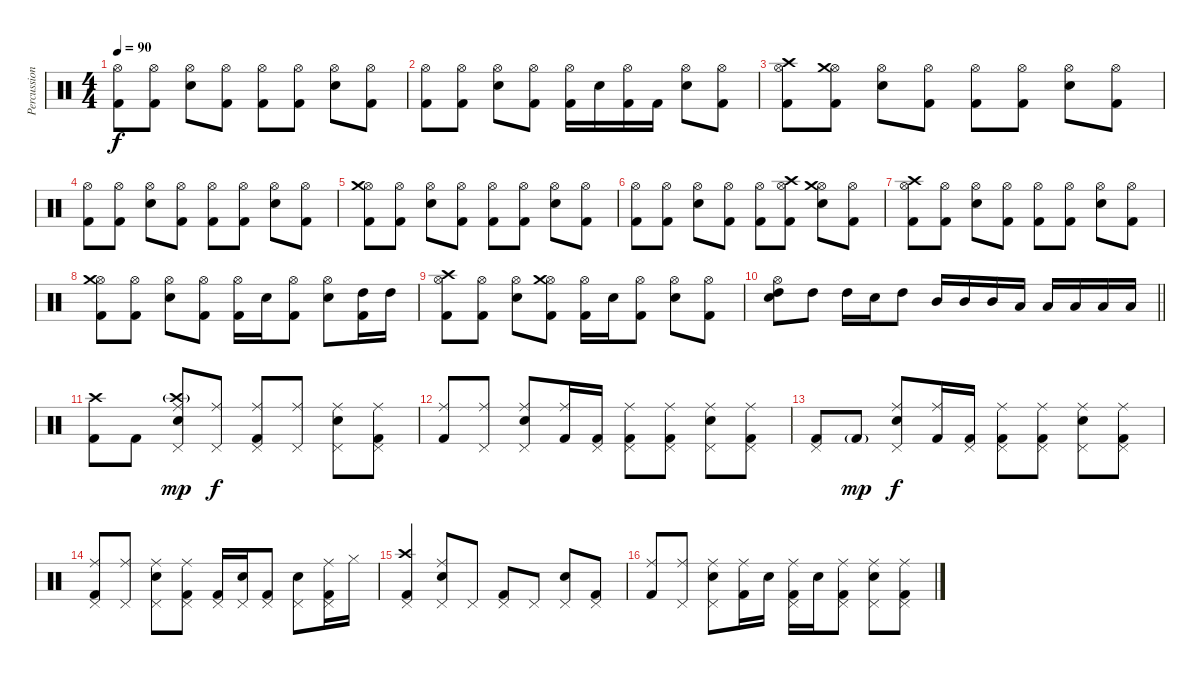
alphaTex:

\track ("Percussion" "Percussion") {instrument percussion}
\staff {score}
\articulation defaults
\ts (4 4)
\tempo 90
\clef neutral
\ks c
("Kick (hit) 2" "Hi-Hat (open)").8{dy f} ("Kick (hit) 2" "Hi-Hat (open)").8 ("Electric Snare (hit)" "Hi-Hat (open)").8 ("Kick (hit) 2" "Hi-Hat (open)").8 ("Kick (hit) 2" "Hi-Hat (open)").8 ("Kick (hit) 2" "Hi-Hat (open)").8 ("Electric Snare (hit)" "Hi-Hat (open)").8 ("Kick (hit) 2" "Hi-Hat (open)").8 |
("Kick (hit) 2" "Hi-Hat (open)").8 ("Kick (hit) 2" "Hi-Hat (open)").8 ("Electric Snare (hit)" "Hi-Hat (open)").8 ("Kick (hit) 2" "Hi-Hat (open)").8 ("Kick (hit) 2" "Hi-Hat (open)").16 "Snare (hit) 2".16 ("Kick (hit) 2" "Hi-Hat (open)").16 "Kick (hit) 2".16 ("Electric Snare (hit)" "Hi-Hat (open)").8 ("Kick (hit) 2" "Hi-Hat (open)").8 |
("Kick (hit) 2" "Hi-Hat (open)" "Crash high (hit)").8 ("Kick (hit) 2" "Hi-Hat (open)" "Crash medium (hit)").8 ("Electric Snare (hit)" "Hi-Hat (open)").8 ("Kick (hit) 2" "Hi-Hat (open)").8 ("Kick (hit) 2" "Hi-Hat (open)").8 ("Kick (hit) 2" "Hi-Hat (open)").8 ("Electric Snare (hit)" "Hi-Hat (open)").8 ("Kick (hit) 2" "Hi-Hat (open)").8 |
("Kick (hit) 2" "Hi-Hat (open)").8 ("Kick (hit) 2" "Hi-Hat (open)").8 ("Electric Snare (hit)" "Hi-Hat (open)").8 ("Kick (hit) 2" "Hi-Hat (open)").8 ("Kick (hit) 2" "Hi-Hat (open)").8 ("Kick (hit) 2" "Hi-Hat (open)").8 ("Electric Snare (hit)" "Hi-Hat (open)").8 ("Kick (hit) 2" "Hi-Hat (open)").8 |
("Kick (hit) 2" "Hi-Hat (open)" "Crash medium (hit)").8 ("Kick (hit) 2" "Hi-Hat (open)").8 ("Electric Snare (hit)" "Hi-Hat (open)").8 ("Kick (hit) 2" "Hi-Hat (open)").8 ("Kick (hit) 2" "Hi-Hat (open)").8 ("Kick (hit) 2" "Hi-Hat (open)").8 ("Electric Snare (hit)" "Hi-Hat (open)").8 ("Kick (hit) 2" "Hi-Hat (open)").8 |
("Kick (hit) 2" "Hi-Hat (open)").8 ("Kick (hit) 2" "Hi-Hat (open)").8 ("Electric Snare (hit)" "Hi-Hat (open)").8 ("Kick (hit) 2" "Hi-Hat (open)").8 ("Kick (hit) 2" "Hi-Hat (open)").8 ("Kick (hit) 2" "Hi-Hat (open)" "Crash high (hit)").8 ("Electric Snare (hit)" "Hi-Hat (open)" "Crash medium (hit)").8 ("Kick (hit) 2" "Hi-Hat (open)").8 |
("Kick (hit) 2" "Hi-Hat (open)" "Crash high (hit)").8 ("Kick (hit) 2" "Hi-Hat (open)").8 ("Electric Snare (hit)" "Hi-Hat (open)").8 ("Kick (hit) 2" "Hi-Hat (open)").8 ("Kick (hit) 2" "Hi-Hat (open)").8 ("Kick (hit) 2" "Hi-Hat (open)").8 ("Electric Snare (hit)" "Hi-Hat (open)").8 ("Kick (hit) 2" "Hi-Hat (open)").8 |
("Kick (hit) 2" "Hi-Hat (open)" "Crash medium (hit)").8 ("Kick (hit) 2" "Hi-Hat (open)").8 ("Electric Snare (hit)" "Hi-Hat (open)").8 ("Kick (hit) 2" "Hi-Hat (open)").8 ("Kick (hit) 2" "Hi-Hat (open)").16 "Electric Snare (hit)".16 ("Kick (hit) 2" "Hi-Hat (open)").8 ("Electric Snare (hit)" "Hi-Hat (open)").8 ("Kick (hit) 2" "High Tom (hit)").16 "High Tom (hit)".16 |
("Kick (hit) 2" "Hi-Hat (open)" "Crash high (hit)").8 ("Kick (hit) 2" "Hi-Hat (open)").8 ("Electric Snare (hit)" "Hi-Hat (open)").8 ("Kick (hit) 2" "Hi-Hat (open)" "Crash medium (hit)").8 ("Kick (hit) 2" "Hi-Hat (open)").16 "Electric Snare (hit)".16 ("Kick (hit) 2" "Hi-Hat (open)").8 ("Electric Snare (hit)" "Hi-Hat (open)").8 ("Kick (hit) 2" "Hi-Hat (open)").8 |
\barLineRight lightlight
("Electric Snare (hit)" "Hi-Hat (open)" "High Tom (hit)").8 "High Tom (hit)".8 "High Tom (hit)".16 "Snare (hit) 2".16 "High Tom (hit)".8 "Mid Tom (hit)".16 "Mid Tom (hit)".16 "Mid Tom (hit)".16 "Low Tom (hit)".16 "Low Tom (hit)".16 "Low Tom (hit)".16 "Low Tom (hit)".16 "Low Tom (hit)".16 |
("Kick (hit) 2" "Crash high (hit)").8 "Kick (hit) 2".8 ("Snare (hit) 2" "Pedal Hi-Hat (hit)" "Crash high (hit)"{g} "Ride (middle)").8{dy mp} ("Pedal Hi-Hat (hit)" "Ride (middle)").8{dy f} ("Kick (hit) 2" "Pedal Hi-Hat (hit)" "Ride (middle)").8 ("Pedal Hi-Hat (hit)" "Ride (middle)").8 ("Snare (hit) 2" "Pedal Hi-Hat (hit)" "Ride (middle)").8 ("Kick (hit) 2" "Pedal Hi-Hat (hit)" "Ride (middle)").8 |
("Kick (hit) 2" "Ride (middle)").8 ("Pedal Hi-Hat (hit)" "Ride (middle)").8 ("Snare (hit) 2" "Pedal Hi-Hat (hit)" "Ride (middle)").8 ("Kick (hit) 2" "Ride (middle)").16 ("Kick (hit) 2" "Pedal Hi-Hat (hit)").16 ("Kick (hit) 2" "Pedal Hi-Hat (hit)" "Ride (middle)").8 ("Kick (hit) 2" "Pedal Hi-Hat (hit)" "Ride (middle)").8 ("Snare (hit) 2" "Pedal Hi-Hat (hit)" "Ride (middle)").8 ("Kick (hit) 2" "Pedal Hi-Hat (hit)" "Ride (middle)").8 |
("Kick (hit) 2" "Pedal Hi-Hat (hit)").8 "Kick (hit) 2"{g}.8{dy mp} ("Snare (hit) 2" "Pedal Hi-Hat (hit)" "Ride (middle)").8{dy f} ("Kick (hit) 2" "Ride (middle)").16 ("Kick (hit) 2" "Pedal Hi-Hat (hit)").16 ("Kick (hit) 2" "Pedal Hi-Hat (hit)" "Ride (middle)").8 ("Kick (hit) 2" "Pedal Hi-Hat (hit)" "Ride (middle)").8 ("Snare (hit) 2" "Pedal Hi-Hat (hit)" "Ride (middle)").8 ("Kick (hit) 2" "Pedal Hi-Hat (hit)" "Ride (middle)").8 |
("Kick (hit) 2" "Pedal Hi-Hat (hit)" "Ride (middle)").8 ("Pedal Hi-Hat (hit)" "Ride (middle)").8 ("Snare (hit) 2" "Pedal Hi-Hat (hit)" "Ride (middle)").8 ("Kick (hit) 2" "Pedal Hi-Hat (hit)" "Ride (middle)").8 ("Kick (hit) 2" "Pedal Hi-Hat (hit)").16 ("Snare (hit) 2" "Pedal Hi-Hat (hit)").16 ("Kick (hit) 2" "Pedal Hi-Hat (hit)").8 ("Snare (hit) 2" "Pedal Hi-Hat (hit)").8 ("Kick (hit) 2" "Pedal Hi-Hat (hit)" "Ride (middle)").16 "Hi-Hat (closed)".16 |
("Kick (hit) 2" "Pedal Hi-Hat (hit)" "Crash high (hit)").4 ("Snare (hit) 2" "Pedal Hi-Hat (hit)" "Ride (middle)").8 "Pedal Hi-Hat (hit)".8 ("Kick (hit) 2" "Pedal Hi-Hat (hit)").8 "Pedal Hi-Hat (hit)".8 ("Snare (hit) 2" "Pedal Hi-Hat (hit)").8 ("Kick (hit) 2" "Pedal Hi-Hat (hit)").8 |
("Kick (hit) 2" "Ride (middle)").8 ("Pedal Hi-Hat (hit)" "Ride (middle)").8 ("Snare (hit) 2" "Pedal Hi-Hat (hit)" "Ride (middle)").8 ("Kick (hit) 2" "Ride (middle)").16 "Snare (hit) 2".16 ("Kick (hit) 2" "Pedal Hi-Hat (hit)" "Ride (middle)").16 "Snare (hit) 2".16 ("Kick (hit) 2" "Pedal Hi-Hat (hit)" "Ride (middle)").8 ("Snare (hit) 2" "Pedal Hi-Hat (hit)" "Ride (middle)").8 ("Kick (hit) 2" "Pedal Hi-Hat (hit)" "Ride (middle)").8
